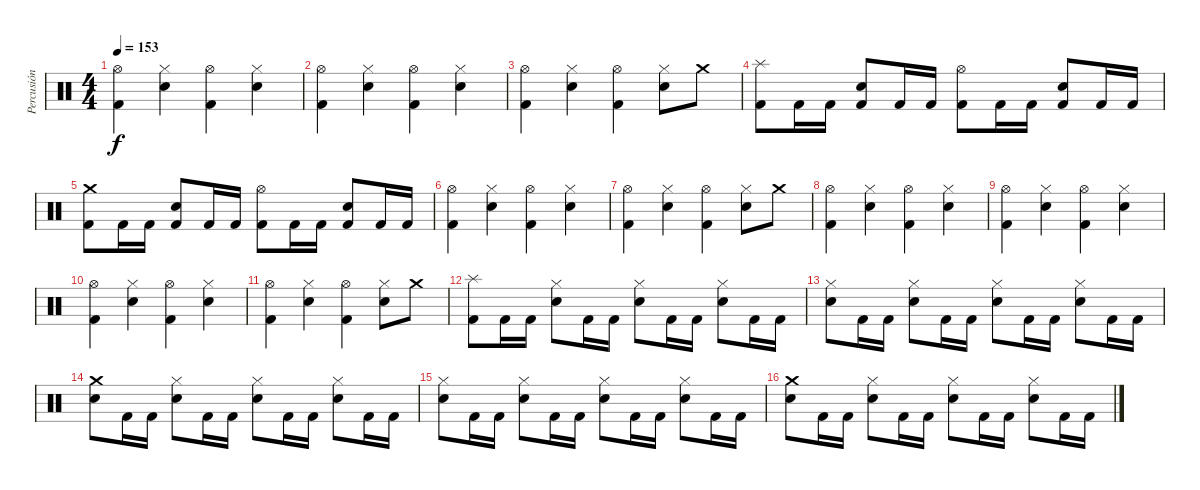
\track ("Percusión" "Percusión") {instrument percussion}
\staff {score}
\articulation defaults
\ts (4 4)
\tempo 153
\clef neutral
\ks c
("Kick (hit) 2" "Hi-Hat (open)").4{dy f} ("Electric Snare (hit)" "Hi-Hat (closed)").4 ("Kick (hit) 2" "Hi-Hat (open)").4 ("Electric Snare (hit)" "Hi-Hat (closed)").4 |
("Kick (hit) 2" "Hi-Hat (open)").4 ("Electric Snare (hit)" "Hi-Hat (closed)").4 ("Kick (hit) 2" "Hi-Hat (open)").4 ("Electric Snare (hit)" "Hi-Hat (closed)").4 |
("Kick (hit) 2" "Hi-Hat (open)").4 ("Electric Snare (hit)" "Hi-Hat (closed)").4 ("Kick (hit) 2" "Hi-Hat (open)").4 ("Snare (hit)" "Hi-Hat (closed)").8 "Crash medium (hit)".8 |
("Kick (hit) 2" "Splash (hit)").8 "Kick (hit) 2".16 "Kick (hit) 2".16 ("Electric Snare (hit)" "Kick (hit) 2").8 "Kick (hit) 2".16 "Kick (hit) 2".16 ("Kick (hit) 2" "Hi-Hat (open)").8 "Kick (hit) 2".16 "Kick (hit) 2".16 ("Electric Snare (hit)" "Kick (hit) 2").8 "Kick (hit) 2".16 "Kick (hit) 2".16 |
("Kick (hit) 2" "Crash medium (hit)").8 "Kick (hit) 2".16 "Kick (hit) 2".16 ("Electric Snare (hit)" "Kick (hit) 2").8 "Kick (hit) 2".16 "Kick (hit) 2".16 ("Kick (hit) 2" "Hi-Hat (open)").8 "Kick (hit) 2".16 "Kick (hit) 2".16 ("Electric Snare (hit)" "Kick (hit) 2").8 "Kick (hit) 2".16 "Kick (hit) 2".16 |
("Kick (hit) 2" "Hi-Hat (open)").4 ("Electric Snare (hit)" "Hi-Hat (closed)").4 ("Kick (hit) 2" "Hi-Hat (open)").4 ("Electric Snare (hit)" "Hi-Hat (closed)").4 |
("Kick (hit) 2" "Hi-Hat (open)").4 ("Electric Snare (hit)" "Hi-Hat (closed)").4 ("Kick (hit) 2" "Hi-Hat (open)").4 ("Snare (hit) 2" "Hi-Hat (closed)").8 "Crash medium (hit)".8 |
("Kick (hit) 2" "Hi-Hat (open)").4 ("Electric Snare (hit)" "Hi-Hat (closed)").4 ("Kick (hit) 2" "Hi-Hat (open)").4 ("Electric Snare (hit)" "Hi-Hat (closed)").4 |
("Kick (hit) 2" "Hi-Hat (open)").4 ("Electric Snare (hit)" "Hi-Hat (closed)").4 ("Kick (hit) 2" "Hi-Hat (open)").4 ("Electric Snare (hit)" "Hi-Hat (closed)").4 |
("Kick (hit) 2" "Hi-Hat (open)").4 ("Electric Snare (hit)" "Hi-Hat (closed)").4 ("Kick (hit) 2" "Hi-Hat (open)").4 ("Electric Snare (hit)" "Hi-Hat (closed)").4 |
("Kick (hit) 2" "Hi-Hat (open)").4 ("Electric Snare (hit)" "Hi-Hat (closed)").4 ("Kick (hit) 2" "Hi-Hat (open)").4 ("Electric Snare (hit)" "Hi-Hat (closed)").8 "Crash medium (hit)".8 |
("Kick (hit) 2" "Splash (hit)").8 "Kick (hit) 2".16 "Kick (hit) 2".16 ("Electric Snare (hit)" "Hi-Hat (closed)").8 "Kick (hit) 2".16 "Kick (hit) 2".16 ("Electric Snare (hit)" "Hi-Hat (closed)").8 "Kick (hit) 2".16 "Kick (hit) 2".16 ("Electric Snare (hit)" "Hi-Hat (closed)").8 "Kick (hit) 2".16 "Kick (hit) 2".16 |
("Electric Snare (hit)" "Hi-Hat (closed)").8 "Kick (hit) 2".16 "Kick (hit) 2".16 ("Electric Snare (hit)" "Hi-Hat (closed)").8 "Kick (hit) 2".16 "Kick (hit) 2".16 ("Electric Snare (hit)" "Hi-Hat (closed)").8 "Kick (hit) 2".16 "Kick (hit) 2".16 ("Electric Snare (hit)" "Hi-Hat (closed)").8 "Kick (hit) 2".16 "Kick (hit) 2".16 |
("Electric Snare (hit)" "Crash medium (hit)").8 "Kick (hit) 2".16 "Kick (hit) 2".16 ("Electric Snare (hit)" "Hi-Hat (closed)").8 "Kick (hit) 2".16 "Kick (hit) 2".16 ("Electric Snare (hit)" "Hi-Hat (closed)").8 "Kick (hit) 2".16 "Kick (hit) 2".16 ("Electric Snare (hit)" "Hi-Hat (closed)").8 "Kick (hit) 2".16 "Kick (hit) 2".16 |
("Electric Snare (hit)" "Hi-Hat (closed)").8 "Kick (hit) 2".16 "Kick (hit) 2".16 ("Electric Snare (hit)" "Hi-Hat (closed)").8 "Kick (hit) 2".16 "Kick (hit) 2".16 ("Electric Snare (hit)" "Hi-Hat (closed)").8 "Kick (hit) 2".16 "Kick (hit) 2".16 ("Electric Snare (hit)" "Hi-Hat (closed)").8 "Kick (hit) 2".16 "Kick (hit) 2".16 |
("Electric Snare (hit)" "Crash medium (hit)").8 "Kick (hit) 2".16 "Kick (hit) 2".16 ("Electric Snare (hit)" "Hi-Hat (closed)").8 "Kick (hit) 2".16 "Kick (hit) 2".16 ("Electric Snare (hit)" "Hi-Hat (closed)").8 "Kick (hit) 2".16 "Kick (hit) 2".16 ("Electric Snare (hit)" "Hi-Hat (closed)").8 "Kick (hit) 2".16 "Kick (hit) 2".16
